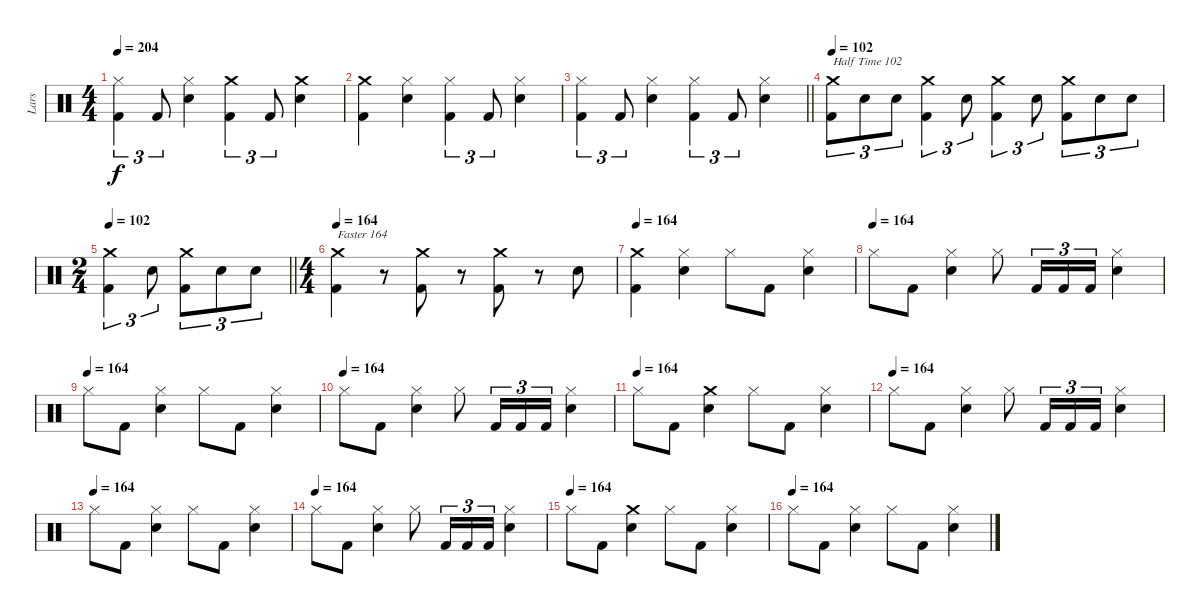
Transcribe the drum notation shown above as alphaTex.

\track ("Lars" "Lars") {instrument percussion}
\staff {score}
\articulation defaults
\ts (4 4)
\tempo 204
\clef neutral
\ks c
("Hi-Hat (closed)" "Kick (hit) 2").4{tu (3 2) dy f} "Kick (hit) 2".8{tu (3 2)} ("Snare (hit) 2" "Hi-Hat (closed)").4 ("Crash medium (hit)" "Kick (hit) 2").4{tu (3 2)} "Kick (hit) 2".8{tu (3 2)} ("Snare (hit) 2" "Crash medium (hit)").4 |
("Crash medium (hit)" "Kick (hit) 2").4 ("Hi-Hat (closed)" "Snare (hit) 2").4 ("Hi-Hat (closed)" "Kick (hit) 2").4{tu (3 2)} "Kick (hit) 2".8{tu (3 2)} ("Snare (hit) 2" "Hi-Hat (closed)").4 |
\barLineRight lightlight
("Hi-Hat (closed)" "Kick (hit) 2").4{tu (3 2)} "Kick (hit) 2".8{tu (3 2)} ("Snare (hit) 2" "Hi-Hat (closed)").4 ("Hi-Hat (closed)" "Kick (hit) 2").4{tu (3 2)} "Kick (hit) 2".8{tu (3 2)} ("Snare (hit) 2" "Hi-Hat (closed)").4 |
\tempo 102
("Crash medium (hit)" "Kick (hit) 2").8{tu (3 2) txt "Half Time 102"} "Snare (hit) 2".8{tu (3 2)} "Snare (hit) 2".8{tu (3 2)} ("Crash medium (hit)" "Kick (hit) 2").4{tu (3 2)} "Snare (hit) 2".8{tu (3 2)} ("Crash medium (hit)" "Kick (hit) 2").4{tu (3 2)} "Snare (hit) 2".8{tu (3 2)} ("Crash medium (hit)" "Kick (hit) 2").8{tu (3 2)} "Snare (hit) 2".8{tu (3 2)} "Snare (hit) 2".8{tu (3 2)} |
\ts (2 4)
\tempo 102
\barLineRight lightlight
("Kick (hit) 2" "Crash medium (hit)").4{tu (3 2)} "Snare (hit) 2".8{tu (3 2)} ("Kick (hit) 2" "Crash medium (hit)").8{tu (3 2)} "Snare (hit) 2".8{tu (3 2)} "Snare (hit) 2".8{tu (3 2)} |
\ts (4 4)
\tempo 164
("Crash medium (hit)" "Kick (hit) 2").4{txt "Faster 164"} r.8 ("Kick (hit) 2" "Crash medium (hit)").8 r.8 ("Crash medium (hit)" "Kick (hit) 2").8 r.8 "Snare (hit) 2".8 |
\tempo 164
("Kick (hit) 2" "Crash medium (hit)").4 ("Hi-Hat (closed)" "Snare (hit) 2").4 "Hi-Hat (closed)".8 "Kick (hit) 2".8 ("Snare (hit) 2" "Hi-Hat (closed)").4 |
\tempo (164)
"Hi-Hat (closed)".8 "Kick (hit) 2".8 ("Snare (hit) 2" "Hi-Hat (closed)").4 "Hi-Hat (closed)".8 "Kick (hit) 2".16{tu (3 2)} "Kick (hit) 2".16{tu (3 2)} "Kick (hit) 2".16{tu (3 2)} ("Snare (hit) 2" "Hi-Hat (closed)").4 |
\tempo (164)
"Hi-Hat (closed)".8 "Kick (hit) 2".8 ("Snare (hit) 2" "Hi-Hat (closed)").4 "Hi-Hat (closed)".8 "Kick (hit) 2".8 ("Snare (hit) 2" "Hi-Hat (closed)").4 |
\tempo (164)
"Hi-Hat (closed)".8 "Kick (hit) 2".8 ("Snare (hit) 2" "Hi-Hat (closed)").4 "Hi-Hat (closed)".8 "Kick (hit) 2".16{tu (3 2)} "Kick (hit) 2".16{tu (3 2)} "Kick (hit) 2".16{tu (3 2)} ("Snare (hit) 2" "Hi-Hat (closed)").4 |
\tempo (164)
"Hi-Hat (closed)".8 "Kick (hit) 2".8 ("Crash medium (hit)" "Snare (hit) 2").4 "Hi-Hat (closed)".8 "Kick (hit) 2".8 ("Snare (hit) 2" "Hi-Hat (closed)").4 |
\tempo (164)
"Hi-Hat (closed)".8 "Kick (hit) 2".8 ("Snare (hit) 2" "Hi-Hat (closed)").4 "Hi-Hat (closed)".8 "Kick (hit) 2".16{tu (3 2)} "Kick (hit) 2".16{tu (3 2)} "Kick (hit) 2".16{tu (3 2)} ("Snare (hit) 2" "Hi-Hat (closed)").4 |
\tempo (164)
"Hi-Hat (closed)".8 "Kick (hit) 2".8 ("Snare (hit) 2" "Hi-Hat (closed)").4 "Hi-Hat (closed)".8 "Kick (hit) 2".8 ("Snare (hit) 2" "Hi-Hat (closed)").4 |
\tempo (164)
"Hi-Hat (closed)".8 "Kick (hit) 2".8 ("Snare (hit) 2" "Hi-Hat (closed)").4 "Hi-Hat (closed)".8 "Kick (hit) 2".16{tu (3 2)} "Kick (hit) 2".16{tu (3 2)} "Kick (hit) 2".16{tu (3 2)} ("Snare (hit) 2" "Hi-Hat (closed)").4 |
\tempo (164)
"Hi-Hat (closed)".8 "Kick (hit) 2".8 ("Crash medium (hit)" "Snare (hit) 2").4 "Hi-Hat (closed)".8 "Kick (hit) 2".8 ("Snare (hit) 2" "Hi-Hat (closed)").4 |
\tempo (164)
"Hi-Hat (closed)".8 "Kick (hit) 2".8 ("Snare (hit) 2" "Hi-Hat (closed)").4 "Hi-Hat (closed)".8 "Kick (hit) 2".8 ("Snare (hit) 2" "Hi-Hat (closed)").4
